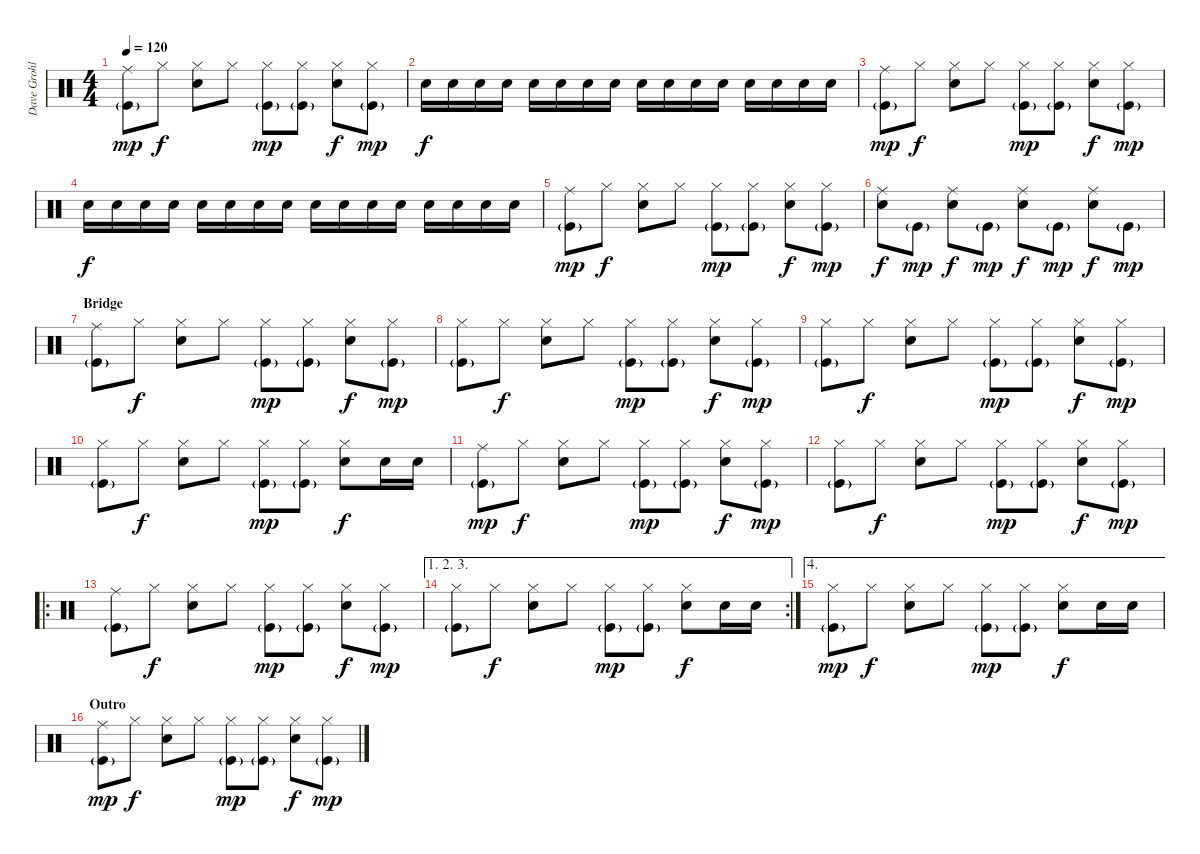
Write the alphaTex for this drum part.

\track ("Dave Grohl" "Dave Grohl") {instrument percussion}
\staff {score}
\articulation defaults
\ts (4 4)
\tempo 120
\clef neutral
\ks c
("Ride (middle)" "Kick (hit)"{g}).8{dy mp} "Hi-Hat (closed)".8{dy f} ("Hi-Hat (closed)" "Electric Snare (hit)").8 "Hi-Hat (closed)".8 ("Hi-Hat (closed)" "Kick (hit)"{g}).8{dy mp} ("Hi-Hat (closed)" "Kick (hit)"{g}).8 ("Hi-Hat (closed)" "Electric Snare (hit)").8{dy f} ("Hi-Hat (closed)" "Kick (hit)"{g}).8{dy mp} |
"Electric Snare (hit)".16{dy f} "Electric Snare (hit)".16 "Electric Snare (hit)".16 "Electric Snare (hit)".16 "Electric Snare (hit)".16 "Electric Snare (hit)".16 "Electric Snare (hit)".16 "Electric Snare (hit)".16 "Electric Snare (hit)".16 "Electric Snare (hit)".16 "Electric Snare (hit)".16 "Electric Snare (hit)".16 "Electric Snare (hit)".16 "Electric Snare (hit)".16 "Electric Snare (hit)".16 "Electric Snare (hit)".16 |
("Ride (middle)" "Kick (hit)"{g}).8{dy mp} "Hi-Hat (closed)".8{dy f} ("Hi-Hat (closed)" "Electric Snare (hit)").8 "Hi-Hat (closed)".8 ("Hi-Hat (closed)" "Kick (hit)"{g}).8{dy mp} ("Hi-Hat (closed)" "Kick (hit)"{g}).8 ("Hi-Hat (closed)" "Electric Snare (hit)").8{dy f} ("Hi-Hat (closed)" "Kick (hit)"{g}).8{dy mp} |
"Electric Snare (hit)".16{dy f} "Electric Snare (hit)".16 "Electric Snare (hit)".16 "Electric Snare (hit)".16 "Electric Snare (hit)".16 "Electric Snare (hit)".16 "Electric Snare (hit)".16 "Electric Snare (hit)".16 "Electric Snare (hit)".16 "Electric Snare (hit)".16 "Electric Snare (hit)".16 "Electric Snare (hit)".16 "Electric Snare (hit)".16 "Electric Snare (hit)".16 "Electric Snare (hit)".16 "Electric Snare (hit)".16 |
("Ride (middle)" "Kick (hit)"{g}).8{dy mp} "Hi-Hat (closed)".8{dy f} ("Hi-Hat (closed)" "Electric Snare (hit)").8 "Hi-Hat (closed)".8 ("Hi-Hat (closed)" "Kick (hit)"{g}).8{dy mp} ("Hi-Hat (closed)" "Kick (hit)"{g}).8 ("Hi-Hat (closed)" "Electric Snare (hit)").8{dy f} ("Hi-Hat (closed)" "Kick (hit)"{g}).8{dy mp} |
("Ride (middle)" "Electric Snare (hit)").8{dy f} "Kick (hit)"{g}.8{dy mp} ("Ride (middle)" "Electric Snare (hit)").8{dy f} "Kick (hit)"{g}.8{dy mp} ("Ride (middle)" "Electric Snare (hit)").8{dy f} "Kick (hit)"{g}.8{dy mp} ("Ride (middle)" "Electric Snare (hit)").8{dy f} "Kick (hit)"{g}.8{dy mp} |
\section ("" "Bridge")
("Ride (middle)" "Kick (hit)"{g}).8 "Hi-Hat (closed)".8{dy f} ("Hi-Hat (closed)" "Electric Snare (hit)").8 "Hi-Hat (closed)".8 ("Hi-Hat (closed)" "Kick (hit)"{g}).8{dy mp} ("Hi-Hat (closed)" "Kick (hit)"{g}).8 ("Hi-Hat (closed)" "Electric Snare (hit)").8{dy f} ("Hi-Hat (closed)" "Kick (hit)"{g}).8{dy mp} |
("Hi-Hat (closed)" "Kick (hit)"{g}).8 "Hi-Hat (closed)".8{dy f} ("Hi-Hat (closed)" "Electric Snare (hit)").8 "Hi-Hat (closed)".8 ("Hi-Hat (closed)" "Kick (hit)"{g}).8{dy mp} ("Hi-Hat (closed)" "Kick (hit)"{g}).8 ("Hi-Hat (closed)" "Electric Snare (hit)").8{dy f} ("Hi-Hat (closed)" "Kick (hit)"{g}).8{dy mp} |
("Hi-Hat (closed)" "Kick (hit)"{g}).8 "Hi-Hat (closed)".8{dy f} ("Hi-Hat (closed)" "Electric Snare (hit)").8 "Hi-Hat (closed)".8 ("Hi-Hat (closed)" "Kick (hit)"{g}).8{dy mp} ("Hi-Hat (closed)" "Kick (hit)"{g}).8 ("Hi-Hat (closed)" "Electric Snare (hit)").8{dy f} ("Hi-Hat (closed)" "Kick (hit)"{g}).8{dy mp} |
("Hi-Hat (closed)" "Kick (hit)"{g}).8 "Hi-Hat (closed)".8{dy f} ("Hi-Hat (closed)" "Electric Snare (hit)").8 "Hi-Hat (closed)".8 ("Hi-Hat (closed)" "Kick (hit)"{g}).8{dy mp} ("Hi-Hat (closed)" "Kick (hit)"{g}).8 ("Hi-Hat (closed)" "Electric Snare (hit)").8{dy f} "Electric Snare (hit)".16 "Electric Snare (hit)".16 |
("Ride (middle)" "Kick (hit)"{g}).8{dy mp} "Hi-Hat (closed)".8{dy f} ("Hi-Hat (closed)" "Electric Snare (hit)").8 "Hi-Hat (closed)".8 ("Hi-Hat (closed)" "Kick (hit)"{g}).8{dy mp} ("Hi-Hat (closed)" "Kick (hit)"{g}).8 ("Hi-Hat (closed)" "Electric Snare (hit)").8{dy f} ("Hi-Hat (closed)" "Kick (hit)"{g}).8{dy mp} |
("Hi-Hat (closed)" "Kick (hit)"{g}).8 "Hi-Hat (closed)".8{dy f} ("Hi-Hat (closed)" "Electric Snare (hit)").8 "Hi-Hat (closed)".8 ("Hi-Hat (closed)" "Kick (hit)"{g}).8{dy mp} ("Hi-Hat (closed)" "Kick (hit)"{g}).8 ("Hi-Hat (closed)" "Electric Snare (hit)").8{dy f} ("Hi-Hat (closed)" "Kick (hit)"{g}).8{dy mp} |
\ro
("Ride (middle)" "Kick (hit)"{g}).8 "Hi-Hat (closed)".8{dy f} ("Hi-Hat (closed)" "Electric Snare (hit)").8 "Hi-Hat (closed)".8 ("Hi-Hat (closed)" "Kick (hit)"{g}).8{dy mp} ("Hi-Hat (closed)" "Kick (hit)"{g}).8 ("Hi-Hat (closed)" "Electric Snare (hit)").8{dy f} ("Hi-Hat (closed)" "Kick (hit)"{g}).8{dy mp} |
\ae (1 2 3)
\rc 2
("Hi-Hat (closed)" "Kick (hit)"{g}).8 "Hi-Hat (closed)".8{dy f} ("Hi-Hat (closed)" "Electric Snare (hit)").8 "Hi-Hat (closed)".8 ("Hi-Hat (closed)" "Kick (hit)"{g}).8{dy mp} ("Hi-Hat (closed)" "Kick (hit)"{g}).8 ("Hi-Hat (closed)" "Electric Snare (hit)").8{dy f} "Electric Snare (hit)".16 "Electric Snare (hit)".16 |
\ae 4
("Hi-Hat (closed)" "Kick (hit)"{g}).8{dy mp} "Hi-Hat (closed)".8{dy f} ("Hi-Hat (closed)" "Electric Snare (hit)").8 "Hi-Hat (closed)".8 ("Hi-Hat (closed)" "Kick (hit)"{g}).8{dy mp} ("Hi-Hat (closed)" "Kick (hit)"{g}).8 ("Hi-Hat (closed)" "Electric Snare (hit)").8{dy f} "Electric Snare (hit)".16 "Electric Snare (hit)".16 |
\section ("" "Outro")
("Ride (middle)" "Kick (hit)"{g}).8{dy mp} "Hi-Hat (closed)".8{dy f} ("Hi-Hat (closed)" "Electric Snare (hit)").8 "Hi-Hat (closed)".8 ("Hi-Hat (closed)" "Kick (hit)"{g}).8{dy mp} ("Hi-Hat (closed)" "Kick (hit)"{g}).8 ("Hi-Hat (closed)" "Electric Snare (hit)").8{dy f} ("Hi-Hat (closed)" "Kick (hit)"{g}).8{dy mp}
